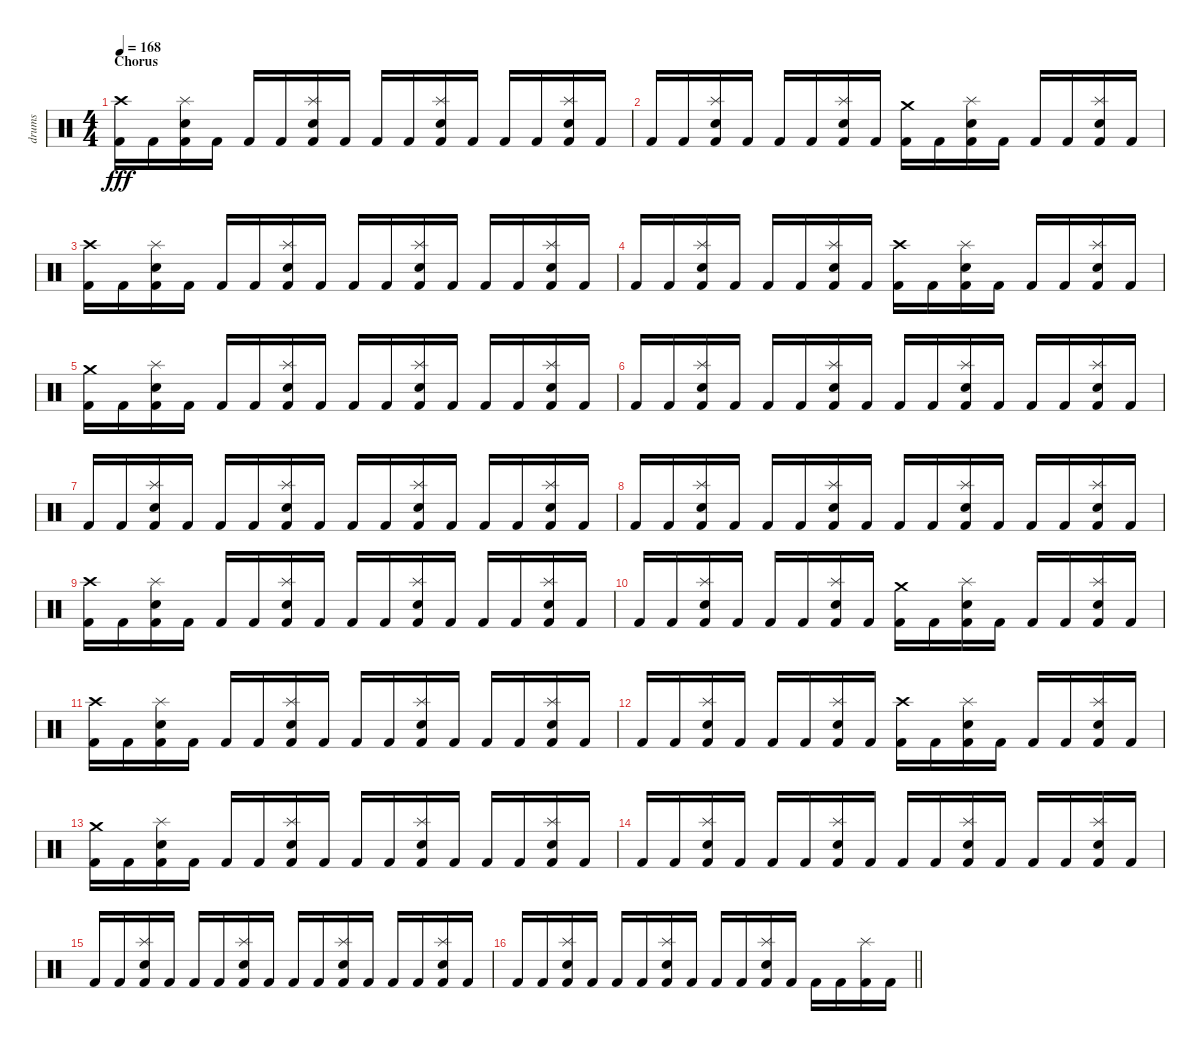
\track ("drums" "drums") {instrument percussion}
\staff {score}
\articulation defaults
\ts (4 4)
\section ("" "Chorus")
\tempo 168
\clef neutral
\ks c
("Crash high (hit)" "Kick (hit) 2").16{dy fff} "Kick (hit) 2".16 ("Splash (hit)" "Snare (hit) 2" "Kick (hit) 2").16 "Kick (hit) 2".16 "Kick (hit) 2".16 "Kick (hit) 2".16 ("Splash (hit)" "Snare (hit) 2" "Kick (hit) 2").16 "Kick (hit) 2".16 "Kick (hit) 2".16 "Kick (hit) 2".16 ("Splash (hit)" "Snare (hit) 2" "Kick (hit) 2").16 "Kick (hit) 2".16 "Kick (hit) 2".16 "Kick (hit) 2".16 ("Splash (hit)" "Snare (hit) 2" "Kick (hit) 2").16 "Kick (hit) 2".16 |
"Kick (hit) 2".16 "Kick (hit) 2".16 ("Splash (hit)" "Snare (hit) 2" "Kick (hit) 2").16 "Kick (hit) 2".16 "Kick (hit) 2".16 "Kick (hit) 2".16 ("Splash (hit)" "Snare (hit) 2" "Kick (hit) 2").16 "Kick (hit) 2".16 ("Crash medium (hit)" "Kick (hit) 2").16 "Kick (hit) 2".16 ("Splash (hit)" "Snare (hit) 2" "Kick (hit) 2").16 "Kick (hit) 2".16 "Kick (hit) 2".16 "Kick (hit) 2".16 ("Splash (hit)" "Snare (hit) 2" "Kick (hit) 2").16 "Kick (hit) 2".16 |
("Crash high (hit)" "Kick (hit) 2").16 "Kick (hit) 2".16 ("Splash (hit)" "Snare (hit) 2" "Kick (hit) 2").16 "Kick (hit) 2".16 "Kick (hit) 2".16 "Kick (hit) 2".16 ("Splash (hit)" "Snare (hit) 2" "Kick (hit) 2").16 "Kick (hit) 2".16 "Kick (hit) 2".16 "Kick (hit) 2".16 ("Splash (hit)" "Snare (hit) 2" "Kick (hit) 2").16 "Kick (hit) 2".16 "Kick (hit) 2".16 "Kick (hit) 2".16 ("Splash (hit)" "Snare (hit) 2" "Kick (hit) 2").16 "Kick (hit) 2".16 |
"Kick (hit) 2".16 "Kick (hit) 2".16 ("Splash (hit)" "Snare (hit) 2" "Kick (hit) 2").16 "Kick (hit) 2".16 "Kick (hit) 2".16 "Kick (hit) 2".16 ("Splash (hit)" "Snare (hit) 2" "Kick (hit) 2").16 "Kick (hit) 2".16 ("Crash high (hit)" "Kick (hit) 2").16 "Kick (hit) 2".16 ("Splash (hit)" "Snare (hit) 2" "Kick (hit) 2").16 "Kick (hit) 2".16 "Kick (hit) 2".16 "Kick (hit) 2".16 ("Splash (hit)" "Snare (hit) 2" "Kick (hit) 2").16 "Kick (hit) 2".16 |
("Crash medium (hit)" "Kick (hit) 2").16 "Kick (hit) 2".16 ("Splash (hit)" "Snare (hit) 2" "Kick (hit) 2").16 "Kick (hit) 2".16 "Kick (hit) 2".16 "Kick (hit) 2".16 ("Splash (hit)" "Snare (hit) 2" "Kick (hit) 2").16 "Kick (hit) 2".16 "Kick (hit) 2".16 "Kick (hit) 2".16 ("Splash (hit)" "Snare (hit) 2" "Kick (hit) 2").16 "Kick (hit) 2".16 "Kick (hit) 2".16 "Kick (hit) 2".16 ("Splash (hit)" "Snare (hit) 2" "Kick (hit) 2").16 "Kick (hit) 2".16 |
"Kick (hit) 2".16 "Kick (hit) 2".16 ("Splash (hit)" "Snare (hit) 2" "Kick (hit) 2").16 "Kick (hit) 2".16 "Kick (hit) 2".16 "Kick (hit) 2".16 ("Splash (hit)" "Snare (hit) 2" "Kick (hit) 2").16 "Kick (hit) 2".16 "Kick (hit) 2".16 "Kick (hit) 2".16 ("Splash (hit)" "Snare (hit) 2" "Kick (hit) 2").16 "Kick (hit) 2".16 "Kick (hit) 2".16 "Kick (hit) 2".16 ("Splash (hit)" "Snare (hit) 2" "Kick (hit) 2").16 "Kick (hit) 2".16 |
"Kick (hit) 2".16 "Kick (hit) 2".16 ("Splash (hit)" "Snare (hit) 2" "Kick (hit) 2").16 "Kick (hit) 2".16 "Kick (hit) 2".16 "Kick (hit) 2".16 ("Splash (hit)" "Snare (hit) 2" "Kick (hit) 2").16 "Kick (hit) 2".16 "Kick (hit) 2".16 "Kick (hit) 2".16 ("Splash (hit)" "Snare (hit) 2" "Kick (hit) 2").16 "Kick (hit) 2".16 "Kick (hit) 2".16 "Kick (hit) 2".16 ("Splash (hit)" "Snare (hit) 2" "Kick (hit) 2").16 "Kick (hit) 2".16 |
"Kick (hit) 2".16 "Kick (hit) 2".16 ("Splash (hit)" "Snare (hit) 2" "Kick (hit) 2").16 "Kick (hit) 2".16 "Kick (hit) 2".16 "Kick (hit) 2".16 ("Splash (hit)" "Snare (hit) 2" "Kick (hit) 2").16 "Kick (hit) 2".16 "Kick (hit) 2".16 "Kick (hit) 2".16 ("Splash (hit)" "Snare (hit) 2" "Kick (hit) 2").16 "Kick (hit) 2".16 "Kick (hit) 2".16 "Kick (hit) 2".16 ("Splash (hit)" "Snare (hit) 2" "Kick (hit) 2").16 "Kick (hit) 2".16 |
("Crash high (hit)" "Kick (hit) 2").16 "Kick (hit) 2".16 ("Splash (hit)" "Snare (hit) 2" "Kick (hit) 2").16 "Kick (hit) 2".16 "Kick (hit) 2".16 "Kick (hit) 2".16 ("Splash (hit)" "Snare (hit) 2" "Kick (hit) 2").16 "Kick (hit) 2".16 "Kick (hit) 2".16 "Kick (hit) 2".16 ("Splash (hit)" "Snare (hit) 2" "Kick (hit) 2").16 "Kick (hit) 2".16 "Kick (hit) 2".16 "Kick (hit) 2".16 ("Splash (hit)" "Snare (hit) 2" "Kick (hit) 2").16 "Kick (hit) 2".16 |
"Kick (hit) 2".16 "Kick (hit) 2".16 ("Splash (hit)" "Snare (hit) 2" "Kick (hit) 2").16 "Kick (hit) 2".16 "Kick (hit) 2".16 "Kick (hit) 2".16 ("Splash (hit)" "Snare (hit) 2" "Kick (hit) 2").16 "Kick (hit) 2".16 ("Crash medium (hit)" "Kick (hit) 2").16 "Kick (hit) 2".16 ("Splash (hit)" "Snare (hit) 2" "Kick (hit) 2").16 "Kick (hit) 2".16 "Kick (hit) 2".16 "Kick (hit) 2".16 ("Splash (hit)" "Snare (hit) 2" "Kick (hit) 2").16 "Kick (hit) 2".16 |
("Crash high (hit)" "Kick (hit) 2").16 "Kick (hit) 2".16 ("Splash (hit)" "Snare (hit) 2" "Kick (hit) 2").16 "Kick (hit) 2".16 "Kick (hit) 2".16 "Kick (hit) 2".16 ("Splash (hit)" "Snare (hit) 2" "Kick (hit) 2").16 "Kick (hit) 2".16 "Kick (hit) 2".16 "Kick (hit) 2".16 ("Splash (hit)" "Snare (hit) 2" "Kick (hit) 2").16 "Kick (hit) 2".16 "Kick (hit) 2".16 "Kick (hit) 2".16 ("Splash (hit)" "Snare (hit) 2" "Kick (hit) 2").16 "Kick (hit) 2".16 |
"Kick (hit) 2".16 "Kick (hit) 2".16 ("Splash (hit)" "Snare (hit) 2" "Kick (hit) 2").16 "Kick (hit) 2".16 "Kick (hit) 2".16 "Kick (hit) 2".16 ("Splash (hit)" "Snare (hit) 2" "Kick (hit) 2").16 "Kick (hit) 2".16 ("Crash high (hit)" "Kick (hit) 2").16 "Kick (hit) 2".16 ("Splash (hit)" "Snare (hit) 2" "Kick (hit) 2").16 "Kick (hit) 2".16 "Kick (hit) 2".16 "Kick (hit) 2".16 ("Splash (hit)" "Snare (hit) 2" "Kick (hit) 2").16 "Kick (hit) 2".16 |
("Crash medium (hit)" "Kick (hit) 2").16 "Kick (hit) 2".16 ("Splash (hit)" "Snare (hit) 2" "Kick (hit) 2").16 "Kick (hit) 2".16 "Kick (hit) 2".16 "Kick (hit) 2".16 ("Splash (hit)" "Snare (hit) 2" "Kick (hit) 2").16 "Kick (hit) 2".16 "Kick (hit) 2".16 "Kick (hit) 2".16 ("Splash (hit)" "Snare (hit) 2" "Kick (hit) 2").16 "Kick (hit) 2".16 "Kick (hit) 2".16 "Kick (hit) 2".16 ("Splash (hit)" "Snare (hit) 2" "Kick (hit) 2").16 "Kick (hit) 2".16 |
"Kick (hit) 2".16 "Kick (hit) 2".16 ("Splash (hit)" "Snare (hit) 2" "Kick (hit) 2").16 "Kick (hit) 2".16 "Kick (hit) 2".16 "Kick (hit) 2".16 ("Splash (hit)" "Snare (hit) 2" "Kick (hit) 2").16 "Kick (hit) 2".16 "Kick (hit) 2".16 "Kick (hit) 2".16 ("Splash (hit)" "Snare (hit) 2" "Kick (hit) 2").16 "Kick (hit) 2".16 "Kick (hit) 2".16 "Kick (hit) 2".16 ("Splash (hit)" "Snare (hit) 2" "Kick (hit) 2").16 "Kick (hit) 2".16 |
"Kick (hit) 2".16 "Kick (hit) 2".16 ("Splash (hit)" "Snare (hit) 2" "Kick (hit) 2").16 "Kick (hit) 2".16 "Kick (hit) 2".16 "Kick (hit) 2".16 ("Splash (hit)" "Snare (hit) 2" "Kick (hit) 2").16 "Kick (hit) 2".16 "Kick (hit) 2".16 "Kick (hit) 2".16 ("Splash (hit)" "Snare (hit) 2" "Kick (hit) 2").16 "Kick (hit) 2".16 "Kick (hit) 2".16 "Kick (hit) 2".16 ("Splash (hit)" "Snare (hit) 2" "Kick (hit) 2").16 "Kick (hit) 2".16 |
\barLineRight lightlight "Kick (hit) 2".16 "Kick (hit) 2".16
("Splash (hit)" "Snare (hit) 2" "Kick (hit) 2").16 "Kick (hit) 2".16 "Kick (hit) 2".16 "Kick (hit) 2".16 ("Splash (hit)" "Snare (hit) 2" "Kick (hit) 2").16 "Kick (hit) 2".16 "Kick (hit) 2".16 "Kick (hit) 2".16 ("Splash (hit)" "Snare (hit) 2" "Kick (hit) 2").16 "Kick (hit) 2".16 "Kick (hit) 2".16 "Kick (hit) 2".16 ("Splash (hit)" "Kick (hit) 2").16 "Kick (hit) 2".16
